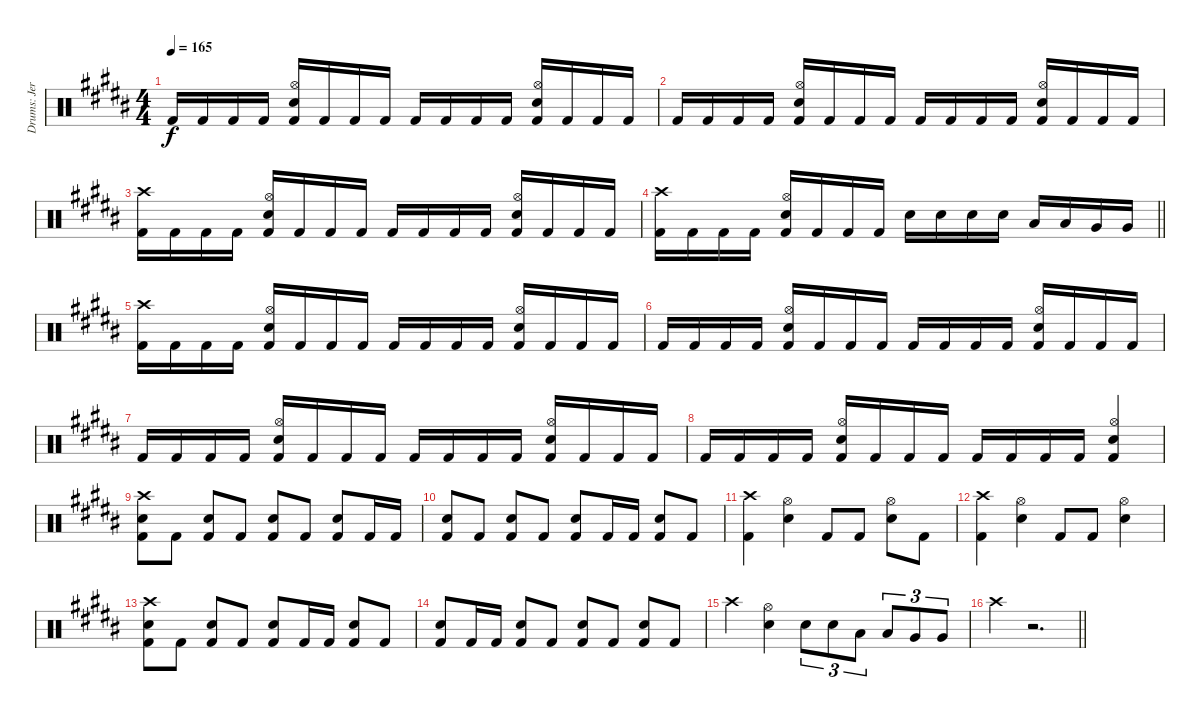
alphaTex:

\track ("Drums: Jere Luokkamäki" "Drums: Jer") {instrument percussion}
\staff {score}
\articulation defaults
\ts (4 4)
\tempo 165
\clef neutral
\ks g#minor "Kick (hit) 2".16{dy f} "Kick (hit) 2".16 "Kick (hit) 2".16 "Kick (hit) 2".16
("Hi-Hat (open)" "Electric Snare (hit)" "Kick (hit) 2").16 "Kick (hit) 2".16 "Kick (hit) 2".16 "Kick (hit) 2".16 "Kick (hit) 2".16 "Kick (hit) 2".16 "Kick (hit) 2".16 "Kick (hit) 2".16 ("Hi-Hat (open)" "Electric Snare (hit)" "Kick (hit) 2").16 "Kick (hit) 2".16 "Kick (hit) 2".16 "Kick (hit) 2".16 |
"Kick (hit) 2".16 "Kick (hit) 2".16 "Kick (hit) 2".16 "Kick (hit) 2".16 ("Hi-Hat (open)" "Electric Snare (hit)" "Kick (hit) 2").16 "Kick (hit) 2".16 "Kick (hit) 2".16 "Kick (hit) 2".16 "Kick (hit) 2".16 "Kick (hit) 2".16 "Kick (hit) 2".16 "Kick (hit) 2".16 ("Hi-Hat (open)" "Electric Snare (hit)" "Kick (hit) 2").16 "Kick (hit) 2".16 "Kick (hit) 2".16 "Kick (hit) 2".16 |
("Crash high (hit)" "Kick (hit) 2").16 "Kick (hit) 2".16 "Kick (hit) 2".16 "Kick (hit) 2".16 ("Hi-Hat (open)" "Electric Snare (hit)" "Kick (hit) 2").16 "Kick (hit) 2".16 "Kick (hit) 2".16 "Kick (hit) 2".16 "Kick (hit) 2".16 "Kick (hit) 2".16 "Kick (hit) 2".16 "Kick (hit) 2".16 ("Hi-Hat (open)" "Electric Snare (hit)" "Kick (hit) 2").16 "Kick (hit) 2".16 "Kick (hit) 2".16 "Kick (hit) 2".16 |
\barLineRight lightlight
("Crash high (hit)" "Kick (hit) 2").16 "Kick (hit) 2".16 "Kick (hit) 2".16 "Kick (hit) 2".16 ("Hi-Hat (open)" "Electric Snare (hit)" "Kick (hit) 2").16 "Kick (hit) 2".16 "Kick (hit) 2".16 "Kick (hit) 2".16 "Electric Snare (hit)".16 "Electric Snare (hit)".16 "Electric Snare (hit)".16 "Electric Snare (hit)".16 "Low Tom (hit)".16 "Low Tom (hit)".16 "Very Low Tom (hit)".16 "Very Low Tom (hit)".16 |
\section ("" "")
("Crash high (hit)" "Kick (hit) 2").16 "Kick (hit) 2".16 "Kick (hit) 2".16 "Kick (hit) 2".16 ("Hi-Hat (open)" "Electric Snare (hit)" "Kick (hit) 2").16 "Kick (hit) 2".16 "Kick (hit) 2".16 "Kick (hit) 2".16 "Kick (hit) 2".16 "Kick (hit) 2".16 "Kick (hit) 2".16 "Kick (hit) 2".16 ("Hi-Hat (open)" "Electric Snare (hit)" "Kick (hit) 2").16 "Kick (hit) 2".16 "Kick (hit) 2".16 "Kick (hit) 2".16 |
"Kick (hit) 2".16 "Kick (hit) 2".16 "Kick (hit) 2".16 "Kick (hit) 2".16 ("Hi-Hat (open)" "Electric Snare (hit)" "Kick (hit) 2").16 "Kick (hit) 2".16 "Kick (hit) 2".16 "Kick (hit) 2".16 "Kick (hit) 2".16 "Kick (hit) 2".16 "Kick (hit) 2".16 "Kick (hit) 2".16 ("Hi-Hat (open)" "Electric Snare (hit)" "Kick (hit) 2").16 "Kick (hit) 2".16 "Kick (hit) 2".16 "Kick (hit) 2".16 |
"Kick (hit) 2".16 "Kick (hit) 2".16 "Kick (hit) 2".16 "Kick (hit) 2".16 ("Hi-Hat (open)" "Electric Snare (hit)" "Kick (hit) 2").16 "Kick (hit) 2".16 "Kick (hit) 2".16 "Kick (hit) 2".16 "Kick (hit) 2".16 "Kick (hit) 2".16 "Kick (hit) 2".16 "Kick (hit) 2".16 ("Hi-Hat (open)" "Electric Snare (hit)" "Kick (hit) 2").16 "Kick (hit) 2".16 "Kick (hit) 2".16 "Kick (hit) 2".16 |
"Kick (hit) 2".16 "Kick (hit) 2".16 "Kick (hit) 2".16 "Kick (hit) 2".16 ("Hi-Hat (open)" "Electric Snare (hit)" "Kick (hit) 2").16 "Kick (hit) 2".16 "Kick (hit) 2".16 "Kick (hit) 2".16 "Kick (hit) 2".16 "Kick (hit) 2".16 "Kick (hit) 2".16 "Kick (hit) 2".16 ("Hi-Hat (open)" "Electric Snare (hit)" "Kick (hit) 2").4 |
("Crash high (hit)" "Electric Snare (hit)" "Kick (hit) 2").8 "Kick (hit) 2".8 ("Electric Snare (hit)" "Kick (hit) 2").8 "Kick (hit) 2".8 ("Electric Snare (hit)" "Kick (hit) 2").8 "Kick (hit) 2".8 ("Electric Snare (hit)" "Kick (hit) 2").8 "Kick (hit) 2".16 "Kick (hit) 2".16 |
("Electric Snare (hit)" "Kick (hit) 2").8 "Kick (hit) 2".8 ("Electric Snare (hit)" "Kick (hit) 2").8 "Kick (hit) 2".8 ("Electric Snare (hit)" "Kick (hit) 2").8 "Kick (hit) 2".16 "Kick (hit) 2".16 ("Electric Snare (hit)" "Kick (hit) 2").8 "Kick (hit) 2".8 |
("Crash high (hit)" "Kick (hit) 2").4 ("Hi-Hat (open)" "Electric Snare (hit)").4 "Kick (hit) 2".8 "Kick (hit) 2".8 ("Hi-Hat (open)" "Electric Snare (hit)").8 "Kick (hit) 2".8 |
("Crash high (hit)" "Kick (hit) 2").4 ("Hi-Hat (open)" "Electric Snare (hit)").4 "Kick (hit) 2".8 "Kick (hit) 2".8 ("Hi-Hat (open)" "Electric Snare (hit)").4 |
("Crash high (hit)" "Electric Snare (hit)" "Kick (hit) 2").8 "Kick (hit) 2".8 ("Electric Snare (hit)" "Kick (hit) 2").8 "Kick (hit) 2".8 ("Electric Snare (hit)" "Kick (hit) 2").8 "Kick (hit) 2".16 "Kick (hit) 2".16 ("Electric Snare (hit)" "Kick (hit) 2").8 "Kick (hit) 2".8 |
("Electric Snare (hit)" "Kick (hit) 2").8 "Kick (hit) 2".16 "Kick (hit) 2".16 ("Electric Snare (hit)" "Kick (hit) 2").8 "Kick (hit) 2".8 ("Electric Snare (hit)" "Kick (hit) 2").8 "Kick (hit) 2".8 ("Electric Snare (hit)" "Kick (hit) 2").8 "Kick (hit) 2".8 |
"Crash high (hit)".4 ("Hi-Hat (open)" "Electric Snare (hit)").4 "Electric Snare (hit)".8{tu (3 2)} "Electric Snare (hit)".8{tu (3 2)} "Low Tom (hit)".8{tu (3 2)} "Low Tom (hit)".8{tu (3 2)} "Very Low Tom (hit)".8{tu (3 2)} "Very Low Tom (hit)".8{tu (3 2)} |
\barLineRight lightlight "Crash high (hit)".4
r.2{d}
